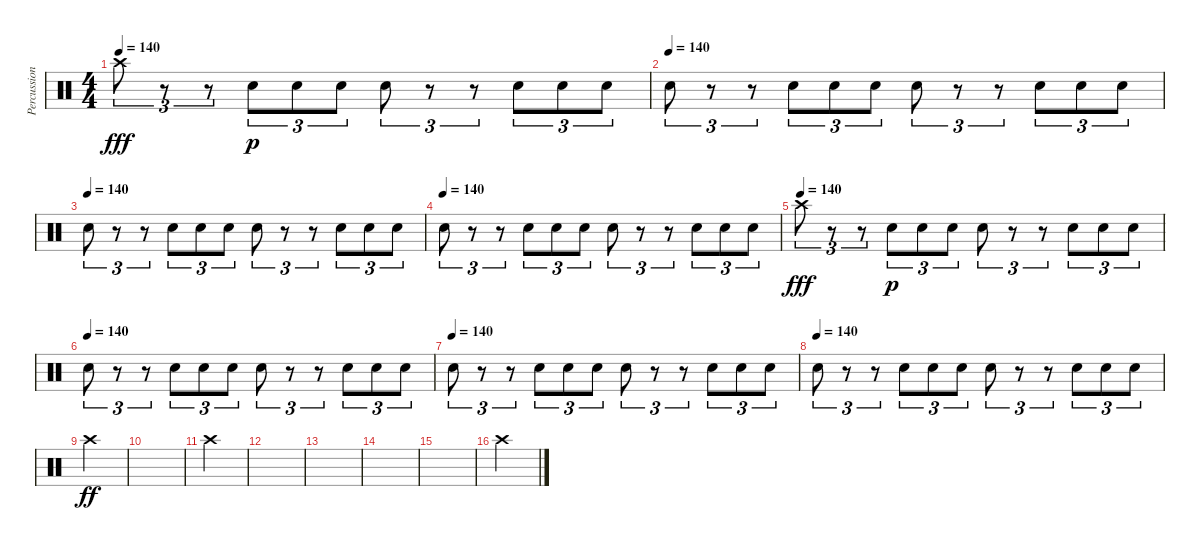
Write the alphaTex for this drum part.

\track ("Percussions" "Percussion") {instrument percussion}
\staff {score}
\articulation defaults
\ts (4 4)
\tempo 140
\clef neutral
\ks c "Crash high (hit)".8{tu (3 2) dy fff}
r.8{tu (3 2)} r.8{tu (3 2)} "Electric Snare (hit)".8{tu (3 2) dy p} "Electric Snare (hit)".8{tu (3 2)} "Electric Snare (hit)".8{tu (3 2)} "Electric Snare (hit)".8{tu (3 2)} r.8{tu (3 2)} r.8{tu (3 2)} "Electric Snare (hit)".8{tu (3 2)} "Electric Snare (hit)".8{tu (3 2)} "Electric Snare (hit)".8{tu (3 2)} |
\tempo (140)
"Electric Snare (hit)".8{tu (3 2)} r.8{tu (3 2)} r.8{tu (3 2)} "Electric Snare (hit)".8{tu (3 2)} "Electric Snare (hit)".8{tu (3 2)} "Electric Snare (hit)".8{tu (3 2)} "Electric Snare (hit)".8{tu (3 2)} r.8{tu (3 2)} r.8{tu (3 2)} "Electric Snare (hit)".8{tu (3 2)} "Electric Snare (hit)".8{tu (3 2)} "Electric Snare (hit)".8{tu (3 2)} |
\tempo (140)
"Electric Snare (hit)".8{tu (3 2)} r.8{tu (3 2)} r.8{tu (3 2)} "Electric Snare (hit)".8{tu (3 2)} "Electric Snare (hit)".8{tu (3 2)} "Electric Snare (hit)".8{tu (3 2)} "Electric Snare (hit)".8{tu (3 2)} r.8{tu (3 2)} r.8{tu (3 2)} "Electric Snare (hit)".8{tu (3 2)} "Electric Snare (hit)".8{tu (3 2)} "Electric Snare (hit)".8{tu (3 2)} |
\tempo (140)
"Electric Snare (hit)".8{tu (3 2)} r.8{tu (3 2)} r.8{tu (3 2)} "Electric Snare (hit)".8{tu (3 2)} "Electric Snare (hit)".8{tu (3 2)} "Electric Snare (hit)".8{tu (3 2)} "Electric Snare (hit)".8{tu (3 2)} r.8{tu (3 2)} r.8{tu (3 2)} "Electric Snare (hit)".8{tu (3 2)} "Electric Snare (hit)".8{tu (3 2)} "Electric Snare (hit)".8{tu (3 2)} |
\tempo (140)
"Crash high (hit)".8{tu (3 2) dy fff} r.8{tu (3 2)} r.8{tu (3 2)} "Electric Snare (hit)".8{tu (3 2) dy p} "Electric Snare (hit)".8{tu (3 2)} "Electric Snare (hit)".8{tu (3 2)} "Electric Snare (hit)".8{tu (3 2)} r.8{tu (3 2)} r.8{tu (3 2)} "Electric Snare (hit)".8{tu (3 2)} "Electric Snare (hit)".8{tu (3 2)} "Electric Snare (hit)".8{tu (3 2)} |
\tempo (140)
"Electric Snare (hit)".8{tu (3 2)} r.8{tu (3 2)} r.8{tu (3 2)} "Electric Snare (hit)".8{tu (3 2)} "Electric Snare (hit)".8{tu (3 2)} "Electric Snare (hit)".8{tu (3 2)} "Electric Snare (hit)".8{tu (3 2)} r.8{tu (3 2)} r.8{tu (3 2)} "Electric Snare (hit)".8{tu (3 2)} "Electric Snare (hit)".8{tu (3 2)} "Electric Snare (hit)".8{tu (3 2)} |
\tempo (140)
"Electric Snare (hit)".8{tu (3 2)} r.8{tu (3 2)} r.8{tu (3 2)} "Electric Snare (hit)".8{tu (3 2)} "Electric Snare (hit)".8{tu (3 2)} "Electric Snare (hit)".8{tu (3 2)} "Electric Snare (hit)".8{tu (3 2)} r.8{tu (3 2)} r.8{tu (3 2)} "Electric Snare (hit)".8{tu (3 2)} "Electric Snare (hit)".8{tu (3 2)} "Electric Snare (hit)".8{tu (3 2)} |
\tempo (140)
"Electric Snare (hit)".8{tu (3 2)} r.8{tu (3 2)} r.8{tu (3 2)} "Electric Snare (hit)".8{tu (3 2)} "Electric Snare (hit)".8{tu (3 2)} "Electric Snare (hit)".8{tu (3 2)} "Electric Snare (hit)".8{tu (3 2)} r.8{tu (3 2)} r.8{tu (3 2)} "Electric Snare (hit)".8{tu (3 2)} "Electric Snare (hit)".8{tu (3 2)} "Electric Snare (hit)".8{tu (3 2)} |
"Crash high (hit)".4{dy ff} |
|
"Crash high (hit)".4 |
|
|
|
|
"Crash high (hit)".4
